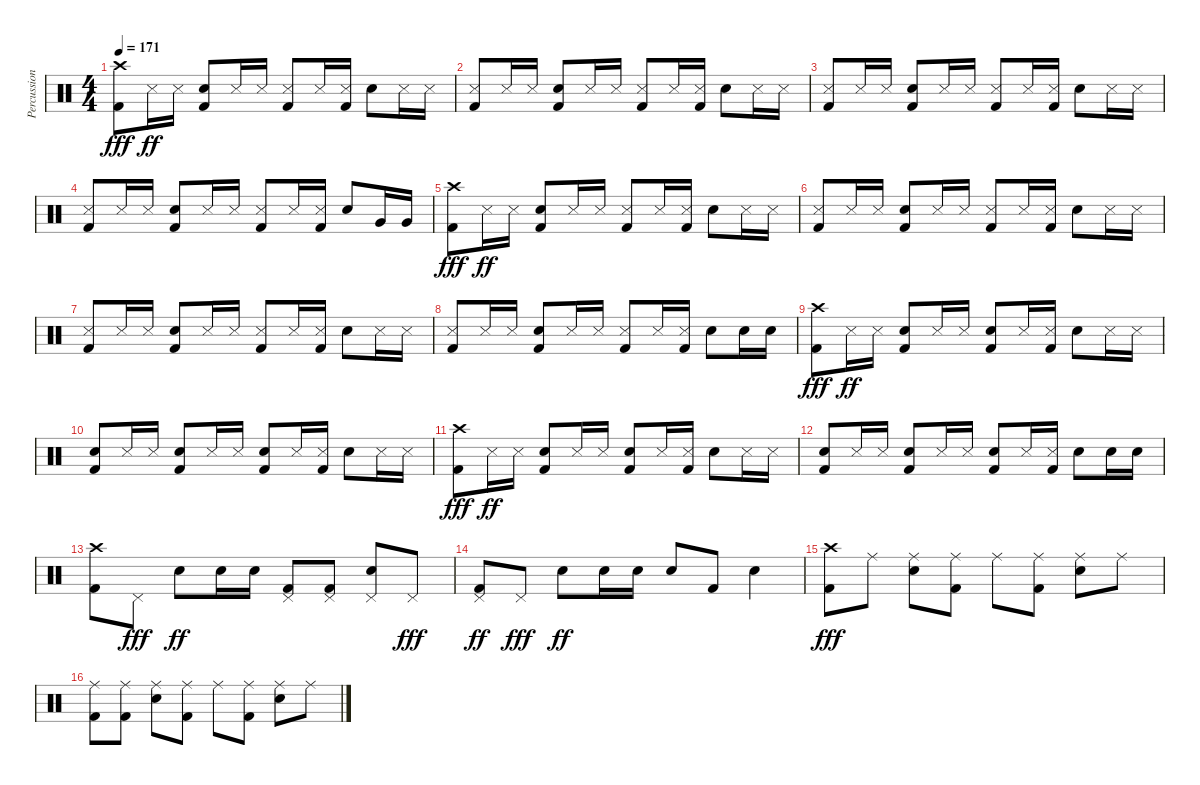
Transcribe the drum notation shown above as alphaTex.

\track ("Percussion" "Percussion") {instrument percussion}
\staff {score}
\articulation defaults
\ts (4 4)
\tempo 171
\clef neutral
\ks c
("Kick (hit) 2" "Crash high (hit)").8{dy fff} "Metronome (hit)".16{dy ff} "Metronome (hit)".16 ("Kick (hit) 2" "Snare (hit) 2").8 "Metronome (hit)".16 "Metronome (hit)".16 ("Kick (hit) 2" "Metronome (hit)").8 "Metronome (hit)".16 ("Kick (hit) 2" "Metronome (hit)").16 "Snare (hit) 2".8 "Metronome (hit)".16 "Metronome (hit)".16 |
("Kick (hit) 2" "Metronome (hit)").8 "Metronome (hit)".16 "Metronome (hit)".16 ("Kick (hit) 2" "Snare (hit) 2").8 "Metronome (hit)".16 "Metronome (hit)".16 ("Kick (hit) 2" "Metronome (hit)").8 "Metronome (hit)".16 ("Kick (hit) 2" "Metronome (hit)").16 "Snare (hit) 2".8 "Metronome (hit)".16 "Metronome (hit)".16 |
("Kick (hit) 2" "Metronome (hit)").8 "Metronome (hit)".16 "Metronome (hit)".16 ("Kick (hit) 2" "Snare (hit) 2").8 "Metronome (hit)".16 "Metronome (hit)".16 ("Kick (hit) 2" "Metronome (hit)").8 "Metronome (hit)".16 ("Kick (hit) 2" "Metronome (hit)").16 "Snare (hit) 2".8 "Metronome (hit)".16 "Metronome (hit)".16 |
("Kick (hit) 2" "Metronome (hit)").8 "Metronome (hit)".16 "Metronome (hit)".16 ("Kick (hit) 2" "Snare (hit) 2").8 "Metronome (hit)".16 "Metronome (hit)".16 ("Kick (hit) 2" "Metronome (hit)").8 "Metronome (hit)".16 ("Kick (hit) 2" "Metronome (hit)").16 "Snare (hit) 2".8 "Very Low Tom (hit)".16 "Very Low Tom (hit)".16 |
("Kick (hit) 2" "Crash high (hit)").8{dy fff} "Metronome (hit)".16{dy ff} "Metronome (hit)".16 ("Kick (hit) 2" "Snare (hit) 2").8 "Metronome (hit)".16 "Metronome (hit)".16 ("Kick (hit) 2" "Metronome (hit)").8 "Metronome (hit)".16 ("Kick (hit) 2" "Metronome (hit)").16 "Snare (hit) 2".8 "Metronome (hit)".16 "Metronome (hit)".16 |
("Kick (hit) 2" "Metronome (hit)").8 "Metronome (hit)".16 "Metronome (hit)".16 ("Kick (hit) 2" "Snare (hit) 2").8 "Metronome (hit)".16 "Metronome (hit)".16 ("Kick (hit) 2" "Metronome (hit)").8 "Metronome (hit)".16 ("Kick (hit) 2" "Metronome (hit)").16 "Snare (hit) 2".8 "Metronome (hit)".16 "Metronome (hit)".16 |
("Kick (hit) 2" "Metronome (hit)").8 "Metronome (hit)".16 "Metronome (hit)".16 ("Kick (hit) 2" "Snare (hit) 2").8 "Metronome (hit)".16 "Metronome (hit)".16 ("Kick (hit) 2" "Metronome (hit)").8 "Metronome (hit)".16 ("Kick (hit) 2" "Metronome (hit)").16 "Snare (hit) 2".8 "Metronome (hit)".16 "Metronome (hit)".16 |
("Kick (hit) 2" "Metronome (hit)").8 "Metronome (hit)".16 "Metronome (hit)".16 ("Kick (hit) 2" "Snare (hit) 2").8 "Metronome (hit)".16 "Metronome (hit)".16 ("Kick (hit) 2" "Metronome (hit)").8 "Metronome (hit)".16 ("Kick (hit) 2" "Metronome (hit)").16 "Snare (hit) 2".8 "Snare (hit) 2".16 "Snare (hit) 2".16 |
("Kick (hit) 2" "Crash high (hit)").8{dy fff} "Metronome (hit)".16{dy ff} "Metronome (hit)".16 ("Kick (hit) 2" "Snare (hit) 2").8 "Metronome (hit)".16 "Metronome (hit)".16 ("Kick (hit) 2" "Snare (hit) 2").8 "Metronome (hit)".16 ("Kick (hit) 2" "Metronome (hit)").16 "Snare (hit) 2".8 "Metronome (hit)".16 "Metronome (hit)".16 |
("Kick (hit) 2" "Snare (hit) 2").8 "Metronome (hit)".16 "Metronome (hit)".16 ("Kick (hit) 2" "Snare (hit) 2").8 "Metronome (hit)".16 "Metronome (hit)".16 ("Kick (hit) 2" "Snare (hit) 2").8 "Metronome (hit)".16 ("Kick (hit) 2" "Metronome (hit)").16 "Snare (hit) 2".8 "Metronome (hit)".16 "Metronome (hit)".16 |
("Kick (hit) 2" "Crash high (hit)").8{dy fff} "Metronome (hit)".16{dy ff} "Metronome (hit)".16 ("Kick (hit) 2" "Snare (hit) 2").8 "Metronome (hit)".16 "Metronome (hit)".16 ("Kick (hit) 2" "Snare (hit) 2").8 "Metronome (hit)".16 ("Kick (hit) 2" "Metronome (hit)").16 "Snare (hit) 2".8 "Metronome (hit)".16 "Metronome (hit)".16 |
("Kick (hit) 2" "Snare (hit) 2").8 "Metronome (hit)".16 "Metronome (hit)".16 ("Kick (hit) 2" "Snare (hit) 2").8 "Metronome (hit)".16 "Metronome (hit)".16 ("Kick (hit) 2" "Snare (hit) 2").8 "Metronome (hit)".16 ("Kick (hit) 2" "Metronome (hit)").16 "Snare (hit) 2".8 "Snare (hit) 2".16 "Snare (hit) 2".16 |
("Crash high (hit)" "Kick (hit) 2").8 "Pedal Hi-Hat (hit)".8{dy fff} "Snare (hit) 2".8{dy ff} "Snare (hit) 2".16 "Snare (hit) 2".16 ("Pedal Hi-Hat (hit)" "Kick (hit) 2").8 ("Pedal Hi-Hat (hit)" "Kick (hit) 2").8 ("Pedal Hi-Hat (hit)" "Snare (hit) 2").8 "Pedal Hi-Hat (hit)".8{dy fff} |
("Pedal Hi-Hat (hit)" "Kick (hit) 2").8{dy ff} "Pedal Hi-Hat (hit)".8{dy fff} "Snare (hit) 2".8{dy ff} "Snare (hit) 2".16 "Snare (hit) 2".16 "Snare (hit) 2".8 "Kick (hit) 2".8 "Snare (hit) 2".4 |
("Kick (hit) 2" "Crash high (hit)").8{dy fff} "Ride (middle)".8 ("Snare (hit) 2" "Ride (middle)").8 ("Kick (hit) 2" "Ride (middle)").8 "Ride (middle)".8 ("Kick (hit) 2" "Ride (middle)").8 ("Snare (hit) 2" "Ride (middle)").8 "Ride (middle)".8 |
("Kick (hit) 2" "Ride (middle)").8 ("Kick (hit) 2" "Ride (middle)").8 ("Snare (hit) 2" "Ride (middle)").8 ("Kick (hit) 2" "Ride (middle)").8 "Ride (middle)".8 ("Kick (hit) 2" "Ride (middle)").8 ("Snare (hit) 2" "Ride (middle)").8 "Ride (middle)".8
